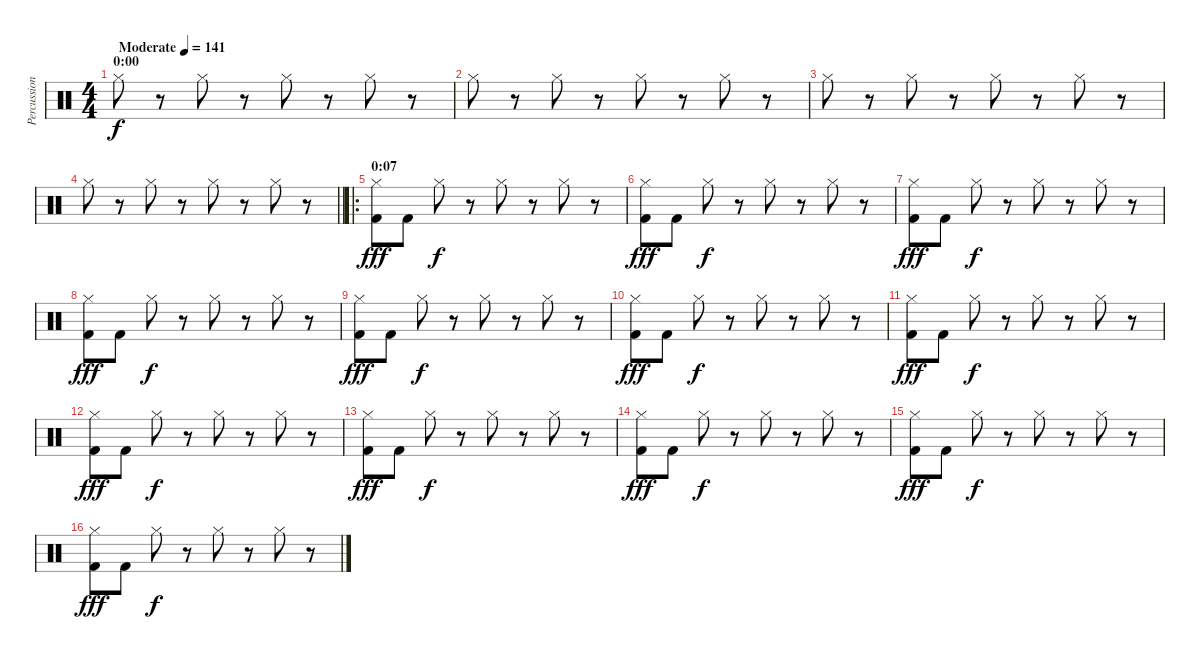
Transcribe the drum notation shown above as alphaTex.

\track ("Percussion" "Percussion") {instrument percussion}
\staff {score}
\articulation defaults
\ts (4 4)
\section ("" "0:00")
\tempo (141 "Moderate")
\clef neutral
\ks c "Hi-Hat (closed)".8{dy f}
r.8 "Hi-Hat (closed)".8 r.8 "Hi-Hat (closed)".8 r.8 "Hi-Hat (closed)".8 r.8 |
"Hi-Hat (closed)".8 r.8 "Hi-Hat (closed)".8 r.8 "Hi-Hat (closed)".8 r.8 "Hi-Hat (closed)".8 r.8 |
"Hi-Hat (closed)".8 r.8 "Hi-Hat (closed)".8 r.8 "Hi-Hat (closed)".8 r.8 "Hi-Hat (closed)".8 r.8 |
\barLineRight lightlight "Hi-Hat (closed)".8
r.8 "Hi-Hat (closed)".8 r.8 "Hi-Hat (closed)".8 r.8 "Hi-Hat (closed)".8 r.8 |
\ro
\section ("" "0:07")
("Hi-Hat (closed)" "Kick (hit) 2").8{dy fff} "Kick (hit) 2".8 "Hi-Hat (closed)".8{dy f} r.8 "Hi-Hat (closed)".8 r.8 "Hi-Hat (closed)".8 r.8 |
("Hi-Hat (closed)" "Kick (hit) 2").8{dy fff} "Kick (hit) 2".8 "Hi-Hat (closed)".8{dy f} r.8 "Hi-Hat (closed)".8 r.8 "Hi-Hat (closed)".8 r.8 |
("Hi-Hat (closed)" "Kick (hit) 2").8{dy fff} "Kick (hit) 2".8 "Hi-Hat (closed)".8{dy f} r.8 "Hi-Hat (closed)".8 r.8 "Hi-Hat (closed)".8 r.8 |
("Hi-Hat (closed)" "Kick (hit) 2").8{dy fff} "Kick (hit) 2".8 "Hi-Hat (closed)".8{dy f} r.8 "Hi-Hat (closed)".8 r.8 "Hi-Hat (closed)".8 r.8 |
("Hi-Hat (closed)" "Kick (hit) 2").8{dy fff} "Kick (hit) 2".8 "Hi-Hat (closed)".8{dy f} r.8 "Hi-Hat (closed)".8 r.8 "Hi-Hat (closed)".8 r.8 |
("Hi-Hat (closed)" "Kick (hit) 2").8{dy fff} "Kick (hit) 2".8 "Hi-Hat (closed)".8{dy f} r.8 "Hi-Hat (closed)".8 r.8 "Hi-Hat (closed)".8 r.8 |
("Hi-Hat (closed)" "Kick (hit) 2").8{dy fff} "Kick (hit) 2".8 "Hi-Hat (closed)".8{dy f} r.8 "Hi-Hat (closed)".8 r.8 "Hi-Hat (closed)".8 r.8 |
("Hi-Hat (closed)" "Kick (hit) 2").8{dy fff} "Kick (hit) 2".8 "Hi-Hat (closed)".8{dy f} r.8 "Hi-Hat (closed)".8 r.8 "Hi-Hat (closed)".8 r.8 |
("Hi-Hat (closed)" "Kick (hit) 2").8{dy fff} "Kick (hit) 2".8 "Hi-Hat (closed)".8{dy f} r.8 "Hi-Hat (closed)".8 r.8 "Hi-Hat (closed)".8 r.8 |
("Hi-Hat (closed)" "Kick (hit) 2").8{dy fff} "Kick (hit) 2".8 "Hi-Hat (closed)".8{dy f} r.8 "Hi-Hat (closed)".8 r.8 "Hi-Hat (closed)".8 r.8 |
("Hi-Hat (closed)" "Kick (hit) 2").8{dy fff} "Kick (hit) 2".8 "Hi-Hat (closed)".8{dy f} r.8 "Hi-Hat (closed)".8 r.8 "Hi-Hat (closed)".8 r.8 |
("Hi-Hat (closed)" "Kick (hit) 2").8{dy fff} "Kick (hit) 2".8 "Hi-Hat (closed)".8{dy f} r.8 "Hi-Hat (closed)".8 r.8 "Hi-Hat (closed)".8 r.8
